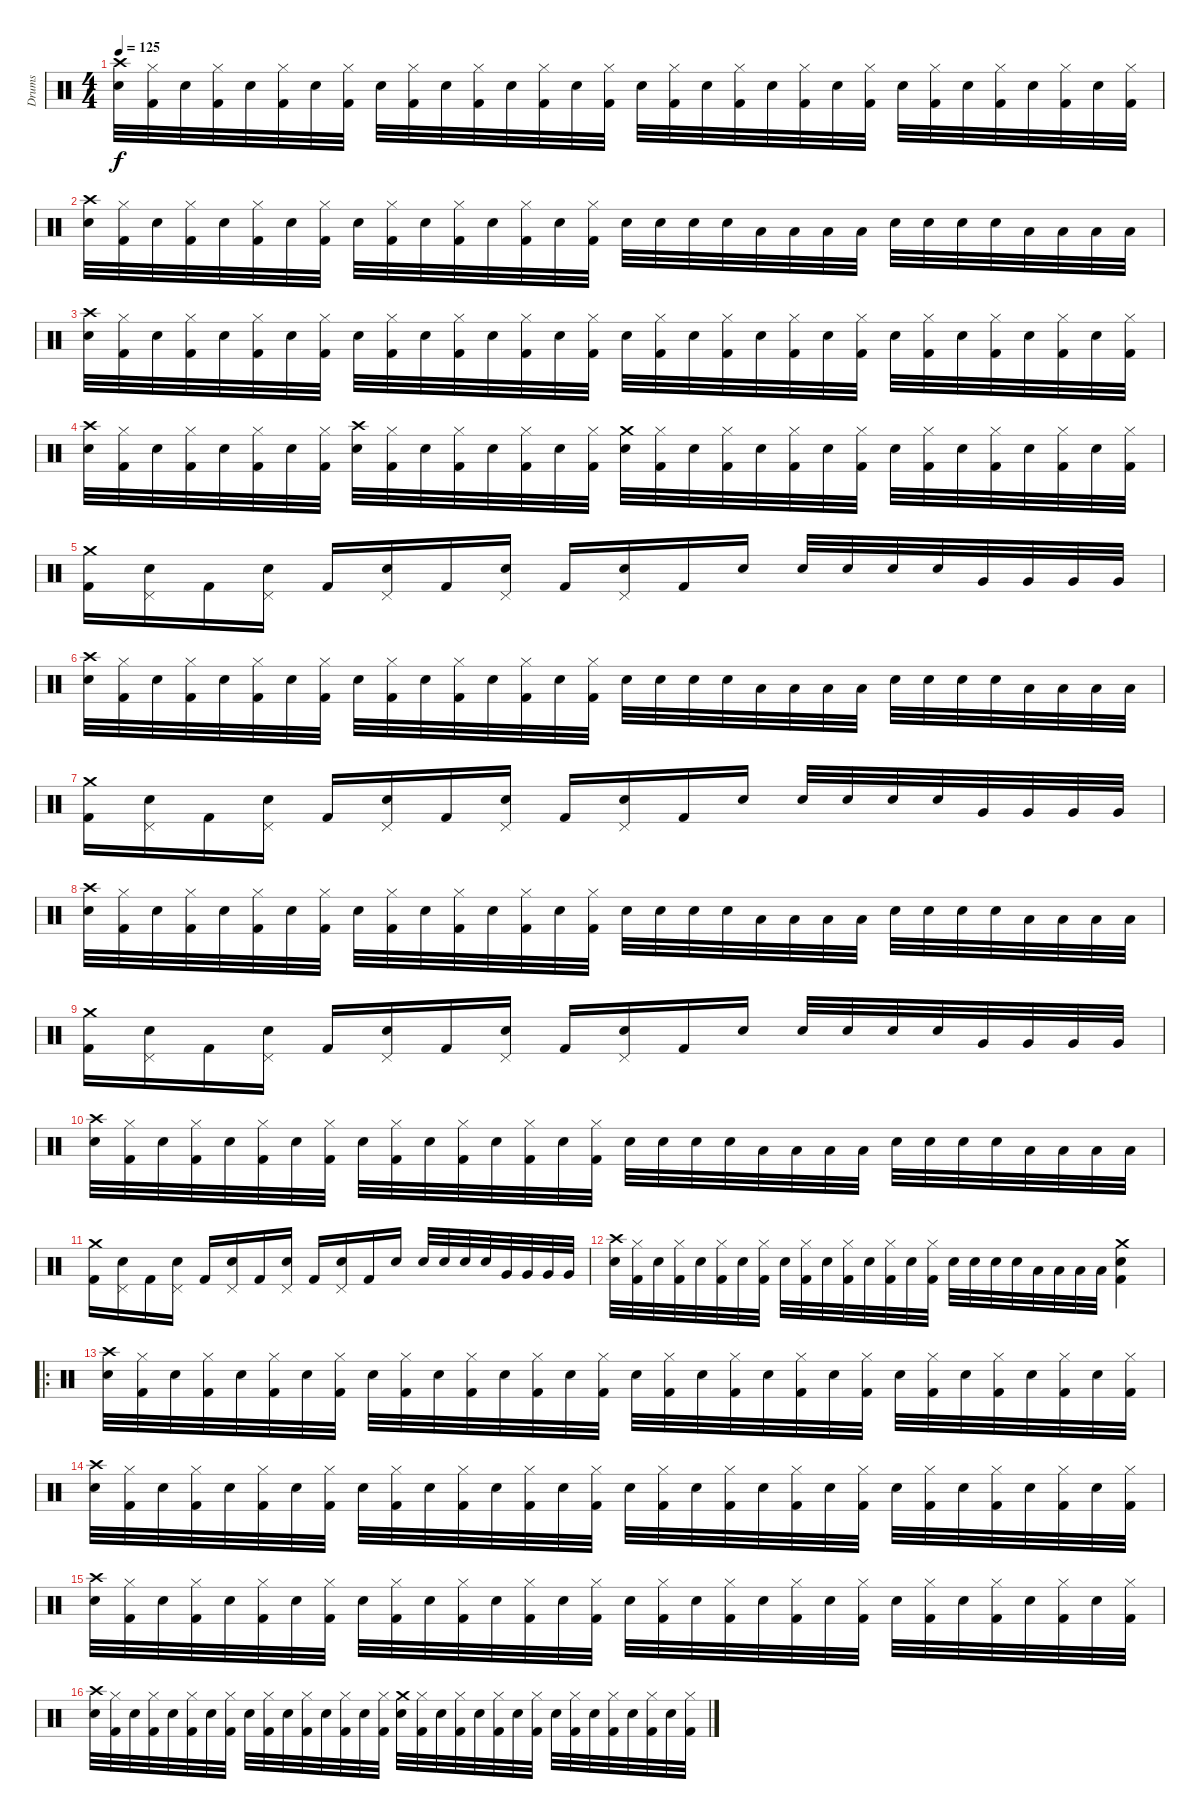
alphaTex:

\track ("Drums" "Drums") {instrument percussion}
\staff {score}
\articulation defaults
\ts (4 4)
\tempo 125
\clef neutral
\ks c
("Crash high (hit)" "Snare (hit) 2").32{dy f} ("Hi-Hat (closed)" "Kick (hit) 2").32 "Snare (hit) 2".32 ("Hi-Hat (closed)" "Kick (hit) 2").32 "Snare (hit) 2".32 ("Hi-Hat (closed)" "Kick (hit) 2").32 "Snare (hit) 2".32 ("Hi-Hat (closed)" "Kick (hit) 2").32 "Snare (hit) 2".32 ("Hi-Hat (closed)" "Kick (hit) 2").32 "Snare (hit) 2".32 ("Hi-Hat (closed)" "Kick (hit) 2").32 "Snare (hit) 2".32 ("Hi-Hat (closed)" "Kick (hit) 2").32 "Snare (hit) 2".32 ("Hi-Hat (closed)" "Kick (hit) 2").32 "Snare (hit) 2".32 ("Hi-Hat (closed)" "Kick (hit) 2").32 "Snare (hit) 2".32 ("Hi-Hat (closed)" "Kick (hit) 2").32 "Snare (hit) 2".32 ("Hi-Hat (closed)" "Kick (hit) 2").32 "Snare (hit) 2".32 ("Hi-Hat (closed)" "Kick (hit) 2").32 "Snare (hit) 2".32 ("Hi-Hat (closed)" "Kick (hit) 2").32 "Snare (hit) 2".32 ("Hi-Hat (closed)" "Kick (hit) 2").32 "Snare (hit) 2".32 ("Hi-Hat (closed)" "Kick (hit) 2").32 "Snare (hit) 2".32 ("Hi-Hat (closed)" "Kick (hit) 2").32 |
("Crash high (hit)" "Snare (hit) 2").32 ("Hi-Hat (closed)" "Kick (hit) 2").32 "Snare (hit) 2".32 ("Hi-Hat (closed)" "Kick (hit) 2").32 "Snare (hit) 2".32 ("Hi-Hat (closed)" "Kick (hit) 2").32 "Snare (hit) 2".32 ("Hi-Hat (closed)" "Kick (hit) 2").32 "Snare (hit) 2".32 ("Hi-Hat (closed)" "Kick (hit) 2").32 "Snare (hit) 2".32 ("Hi-Hat (closed)" "Kick (hit) 2").32 "Snare (hit) 2".32 ("Hi-Hat (closed)" "Kick (hit) 2").32 "Snare (hit) 2".32 ("Hi-Hat (closed)" "Kick (hit) 2").32 "Snare (hit) 2".32 "Snare (hit) 2".32 "Snare (hit) 2".32 "Snare (hit) 2".32 "Low Tom (hit)".32 "Low Tom (hit)".32 "Low Tom (hit)".32 "Low Tom (hit)".32 "Snare (hit) 2".32 "Snare (hit) 2".32 "Snare (hit) 2".32 "Snare (hit) 2".32 "Low Tom (hit)".32 "Low Tom (hit)".32 "Low Tom (hit)".32 "Low Tom (hit)".32 |
("Crash high (hit)" "Snare (hit) 2").32 ("Hi-Hat (closed)" "Kick (hit) 2").32 "Snare (hit) 2".32 ("Hi-Hat (closed)" "Kick (hit) 2").32 "Snare (hit) 2".32 ("Hi-Hat (closed)" "Kick (hit) 2").32 "Snare (hit) 2".32 ("Hi-Hat (closed)" "Kick (hit) 2").32 "Snare (hit) 2".32 ("Hi-Hat (closed)" "Kick (hit) 2").32 "Snare (hit) 2".32 ("Hi-Hat (closed)" "Kick (hit) 2").32 "Snare (hit) 2".32 ("Hi-Hat (closed)" "Kick (hit) 2").32 "Snare (hit) 2".32 ("Hi-Hat (closed)" "Kick (hit) 2").32 "Snare (hit) 2".32 ("Hi-Hat (closed)" "Kick (hit) 2").32 "Snare (hit) 2".32 ("Hi-Hat (closed)" "Kick (hit) 2").32 "Snare (hit) 2".32 ("Hi-Hat (closed)" "Kick (hit) 2").32 "Snare (hit) 2".32 ("Hi-Hat (closed)" "Kick (hit) 2").32 "Snare (hit) 2".32 ("Hi-Hat (closed)" "Kick (hit) 2").32 "Snare (hit) 2".32 ("Hi-Hat (closed)" "Kick (hit) 2").32 "Snare (hit) 2".32 ("Hi-Hat (closed)" "Kick (hit) 2").32 "Snare (hit) 2".32 ("Hi-Hat (closed)" "Kick (hit) 2").32 |
("Crash high (hit)" "Snare (hit) 2").32 ("Hi-Hat (closed)" "Kick (hit) 2").32 "Snare (hit) 2".32 ("Hi-Hat (closed)" "Kick (hit) 2").32 "Snare (hit) 2".32 ("Hi-Hat (closed)" "Kick (hit) 2").32 "Snare (hit) 2".32 ("Hi-Hat (closed)" "Kick (hit) 2").32 ("Crash high (hit)" "Snare (hit) 2").32 ("Hi-Hat (closed)" "Kick (hit) 2").32 "Snare (hit) 2".32 ("Hi-Hat (closed)" "Kick (hit) 2").32 "Snare (hit) 2".32 ("Hi-Hat (closed)" "Kick (hit) 2").32 "Snare (hit) 2".32 ("Hi-Hat (closed)" "Kick (hit) 2").32 ("Crash medium (hit)" "Snare (hit) 2").32 ("Hi-Hat (closed)" "Kick (hit) 2").32 "Snare (hit) 2".32 ("Hi-Hat (closed)" "Kick (hit) 2").32 "Snare (hit) 2".32 ("Hi-Hat (closed)" "Kick (hit) 2").32 "Snare (hit) 2".32 ("Hi-Hat (closed)" "Kick (hit) 2").32 "Snare (hit) 2".32 ("Hi-Hat (closed)" "Kick (hit) 2").32 "Snare (hit) 2".32 ("Hi-Hat (closed)" "Kick (hit) 2").32 "Snare (hit) 2".32 ("Hi-Hat (closed)" "Kick (hit) 2").32 "Snare (hit) 2".32 ("Hi-Hat (closed)" "Kick (hit) 2").32 |
("Crash medium (hit)" "Kick (hit) 2").16 ("Pedal Hi-Hat (hit)" "Snare (hit) 2").16 "Kick (hit) 2".16 ("Pedal Hi-Hat (hit)" "Snare (hit) 2").16 "Kick (hit) 2".16 ("Pedal Hi-Hat (hit)" "Snare (hit) 2").16 "Kick (hit) 2".16 ("Pedal Hi-Hat (hit)" "Snare (hit) 2").16 "Kick (hit) 2".16 ("Pedal Hi-Hat (hit)" "Snare (hit) 2").16 "Kick (hit) 2".16 "Snare (hit) 2".16 "Snare (hit) 2".32 "Snare (hit) 2".32 "Snare (hit) 2".32 "Snare (hit) 2".32 "Very Low Tom (hit)".32 "Very Low Tom (hit)".32 "Very Low Tom (hit)".32 "Very Low Tom (hit)".32 |
("Crash high (hit)" "Snare (hit) 2").32 ("Hi-Hat (closed)" "Kick (hit) 2").32 "Snare (hit) 2".32 ("Hi-Hat (closed)" "Kick (hit) 2").32 "Snare (hit) 2".32 ("Hi-Hat (closed)" "Kick (hit) 2").32 "Snare (hit) 2".32 ("Hi-Hat (closed)" "Kick (hit) 2").32 "Snare (hit) 2".32 ("Hi-Hat (closed)" "Kick (hit) 2").32 "Snare (hit) 2".32 ("Hi-Hat (closed)" "Kick (hit) 2").32 "Snare (hit) 2".32 ("Hi-Hat (closed)" "Kick (hit) 2").32 "Snare (hit) 2".32 ("Hi-Hat (closed)" "Kick (hit) 2").32 "Snare (hit) 2".32 "Snare (hit) 2".32 "Snare (hit) 2".32 "Snare (hit) 2".32 "Low Tom (hit)".32 "Low Tom (hit)".32 "Low Tom (hit)".32 "Low Tom (hit)".32 "Snare (hit) 2".32 "Snare (hit) 2".32 "Snare (hit) 2".32 "Snare (hit) 2".32 "Low Tom (hit)".32 "Low Tom (hit)".32 "Low Tom (hit)".32 "Low Tom (hit)".32 |
("Crash medium (hit)" "Kick (hit) 2").16 ("Pedal Hi-Hat (hit)" "Snare (hit) 2").16 "Kick (hit) 2".16 ("Pedal Hi-Hat (hit)" "Snare (hit) 2").16 "Kick (hit) 2".16 ("Pedal Hi-Hat (hit)" "Snare (hit) 2").16 "Kick (hit) 2".16 ("Pedal Hi-Hat (hit)" "Snare (hit) 2").16 "Kick (hit) 2".16 ("Pedal Hi-Hat (hit)" "Snare (hit) 2").16 "Kick (hit) 2".16 "Snare (hit) 2".16 "Snare (hit) 2".32 "Snare (hit) 2".32 "Snare (hit) 2".32 "Snare (hit) 2".32 "Very Low Tom (hit)".32 "Very Low Tom (hit)".32 "Very Low Tom (hit)".32 "Very Low Tom (hit)".32 |
("Crash high (hit)" "Snare (hit) 2").32 ("Hi-Hat (closed)" "Kick (hit) 2").32 "Snare (hit) 2".32 ("Hi-Hat (closed)" "Kick (hit) 2").32 "Snare (hit) 2".32 ("Hi-Hat (closed)" "Kick (hit) 2").32 "Snare (hit) 2".32 ("Hi-Hat (closed)" "Kick (hit) 2").32 "Snare (hit) 2".32 ("Hi-Hat (closed)" "Kick (hit) 2").32 "Snare (hit) 2".32 ("Hi-Hat (closed)" "Kick (hit) 2").32 "Snare (hit) 2".32 ("Hi-Hat (closed)" "Kick (hit) 2").32 "Snare (hit) 2".32 ("Hi-Hat (closed)" "Kick (hit) 2").32 "Snare (hit) 2".32 "Snare (hit) 2".32 "Snare (hit) 2".32 "Snare (hit) 2".32 "Low Tom (hit)".32 "Low Tom (hit)".32 "Low Tom (hit)".32 "Low Tom (hit)".32 "Snare (hit) 2".32 "Snare (hit) 2".32 "Snare (hit) 2".32 "Snare (hit) 2".32 "Low Tom (hit)".32 "Low Tom (hit)".32 "Low Tom (hit)".32 "Low Tom (hit)".32 |
("Crash medium (hit)" "Kick (hit) 2").16 ("Pedal Hi-Hat (hit)" "Snare (hit) 2").16 "Kick (hit) 2".16 ("Pedal Hi-Hat (hit)" "Snare (hit) 2").16 "Kick (hit) 2".16 ("Pedal Hi-Hat (hit)" "Snare (hit) 2").16 "Kick (hit) 2".16 ("Pedal Hi-Hat (hit)" "Snare (hit) 2").16 "Kick (hit) 2".16 ("Pedal Hi-Hat (hit)" "Snare (hit) 2").16 "Kick (hit) 2".16 "Snare (hit) 2".16 "Snare (hit) 2".32 "Snare (hit) 2".32 "Snare (hit) 2".32 "Snare (hit) 2".32 "Very Low Tom (hit)".32 "Very Low Tom (hit)".32 "Very Low Tom (hit)".32 "Very Low Tom (hit)".32 |
("Crash high (hit)" "Snare (hit) 2").32 ("Hi-Hat (closed)" "Kick (hit) 2").32 "Snare (hit) 2".32 ("Hi-Hat (closed)" "Kick (hit) 2").32 "Snare (hit) 2".32 ("Hi-Hat (closed)" "Kick (hit) 2").32 "Snare (hit) 2".32 ("Hi-Hat (closed)" "Kick (hit) 2").32 "Snare (hit) 2".32 ("Hi-Hat (closed)" "Kick (hit) 2").32 "Snare (hit) 2".32 ("Hi-Hat (closed)" "Kick (hit) 2").32 "Snare (hit) 2".32 ("Hi-Hat (closed)" "Kick (hit) 2").32 "Snare (hit) 2".32 ("Hi-Hat (closed)" "Kick (hit) 2").32 "Snare (hit) 2".32 "Snare (hit) 2".32 "Snare (hit) 2".32 "Snare (hit) 2".32 "Low Tom (hit)".32 "Low Tom (hit)".32 "Low Tom (hit)".32 "Low Tom (hit)".32 "Snare (hit) 2".32 "Snare (hit) 2".32 "Snare (hit) 2".32 "Snare (hit) 2".32 "Low Tom (hit)".32 "Low Tom (hit)".32 "Low Tom (hit)".32 "Low Tom (hit)".32 |
("Crash medium (hit)" "Kick (hit) 2").16 ("Pedal Hi-Hat (hit)" "Snare (hit) 2").16 "Kick (hit) 2".16 ("Pedal Hi-Hat (hit)" "Snare (hit) 2").16 "Kick (hit) 2".16 ("Pedal Hi-Hat (hit)" "Snare (hit) 2").16 "Kick (hit) 2".16 ("Pedal Hi-Hat (hit)" "Snare (hit) 2").16 "Kick (hit) 2".16 ("Pedal Hi-Hat (hit)" "Snare (hit) 2").16 "Kick (hit) 2".16 "Snare (hit) 2".16 "Snare (hit) 2".32 "Snare (hit) 2".32 "Snare (hit) 2".32 "Snare (hit) 2".32 "Very Low Tom (hit)".32 "Very Low Tom (hit)".32 "Very Low Tom (hit)".32 "Very Low Tom (hit)".32 |
("Crash high (hit)" "Snare (hit) 2").32 ("Hi-Hat (closed)" "Kick (hit) 2").32 "Snare (hit) 2".32 ("Hi-Hat (closed)" "Kick (hit) 2").32 "Snare (hit) 2".32 ("Hi-Hat (closed)" "Kick (hit) 2").32 "Snare (hit) 2".32 ("Hi-Hat (closed)" "Kick (hit) 2").32 "Snare (hit) 2".32 ("Hi-Hat (closed)" "Kick (hit) 2").32 "Snare (hit) 2".32 ("Hi-Hat (closed)" "Kick (hit) 2").32 "Snare (hit) 2".32 ("Hi-Hat (closed)" "Kick (hit) 2").32 "Snare (hit) 2".32 ("Hi-Hat (closed)" "Kick (hit) 2").32 "Snare (hit) 2".32 "Snare (hit) 2".32 "Snare (hit) 2".32 "Snare (hit) 2".32 "Low Tom (hit)".32 "Low Tom (hit)".32 "Low Tom (hit)".32 "Low Tom (hit)".32 ("Crash medium (hit)" "Snare (hit) 2" "Kick (hit) 2").4 |
\ro
("Crash high (hit)" "Snare (hit) 2").32 ("Hi-Hat (closed)" "Kick (hit) 2").32 "Snare (hit) 2".32 ("Hi-Hat (closed)" "Kick (hit) 2").32 "Snare (hit) 2".32 ("Hi-Hat (closed)" "Kick (hit) 2").32 "Snare (hit) 2".32 ("Hi-Hat (closed)" "Kick (hit) 2").32 "Snare (hit) 2".32 ("Hi-Hat (closed)" "Kick (hit) 2").32 "Snare (hit) 2".32 ("Hi-Hat (closed)" "Kick (hit) 2").32 "Snare (hit) 2".32 ("Hi-Hat (closed)" "Kick (hit) 2").32 "Snare (hit) 2".32 ("Hi-Hat (closed)" "Kick (hit) 2").32 "Snare (hit) 2".32 ("Hi-Hat (closed)" "Kick (hit) 2").32 "Snare (hit) 2".32 ("Hi-Hat (closed)" "Kick (hit) 2").32 "Snare (hit) 2".32 ("Hi-Hat (closed)" "Kick (hit) 2").32 "Snare (hit) 2".32 ("Hi-Hat (closed)" "Kick (hit) 2").32 "Snare (hit) 2".32 ("Hi-Hat (closed)" "Kick (hit) 2").32 "Snare (hit) 2".32 ("Hi-Hat (closed)" "Kick (hit) 2").32 "Snare (hit) 2".32 ("Hi-Hat (closed)" "Kick (hit) 2").32 "Snare (hit) 2".32 ("Hi-Hat (closed)" "Kick (hit) 2").32 |
("Crash high (hit)" "Snare (hit) 2").32 ("Hi-Hat (closed)" "Kick (hit) 2").32 "Snare (hit) 2".32 ("Hi-Hat (closed)" "Kick (hit) 2").32 "Snare (hit) 2".32 ("Hi-Hat (closed)" "Kick (hit) 2").32 "Snare (hit) 2".32 ("Hi-Hat (closed)" "Kick (hit) 2").32 "Snare (hit) 2".32 ("Hi-Hat (closed)" "Kick (hit) 2").32 "Snare (hit) 2".32 ("Hi-Hat (closed)" "Kick (hit) 2").32 "Snare (hit) 2".32 ("Hi-Hat (closed)" "Kick (hit) 2").32 "Snare (hit) 2".32 ("Hi-Hat (closed)" "Kick (hit) 2").32 "Snare (hit) 2".32 ("Hi-Hat (closed)" "Kick (hit) 2").32 "Snare (hit) 2".32 ("Hi-Hat (closed)" "Kick (hit) 2").32 "Snare (hit) 2".32 ("Hi-Hat (closed)" "Kick (hit) 2").32 "Snare (hit) 2".32 ("Hi-Hat (closed)" "Kick (hit) 2").32 "Snare (hit) 2".32 ("Hi-Hat (closed)" "Kick (hit) 2").32 "Snare (hit) 2".32 ("Hi-Hat (closed)" "Kick (hit) 2").32 "Snare (hit) 2".32 ("Hi-Hat (closed)" "Kick (hit) 2").32 "Snare (hit) 2".32 ("Hi-Hat (closed)" "Kick (hit) 2").32 |
("Crash high (hit)" "Snare (hit) 2").32 ("Hi-Hat (closed)" "Kick (hit) 2").32 "Snare (hit) 2".32 ("Hi-Hat (closed)" "Kick (hit) 2").32 "Snare (hit) 2".32 ("Hi-Hat (closed)" "Kick (hit) 2").32 "Snare (hit) 2".32 ("Hi-Hat (closed)" "Kick (hit) 2").32 "Snare (hit) 2".32 ("Hi-Hat (closed)" "Kick (hit) 2").32 "Snare (hit) 2".32 ("Hi-Hat (closed)" "Kick (hit) 2").32 "Snare (hit) 2".32 ("Hi-Hat (closed)" "Kick (hit) 2").32 "Snare (hit) 2".32 ("Hi-Hat (closed)" "Kick (hit) 2").32 "Snare (hit) 2".32 ("Hi-Hat (closed)" "Kick (hit) 2").32 "Snare (hit) 2".32 ("Hi-Hat (closed)" "Kick (hit) 2").32 "Snare (hit) 2".32 ("Hi-Hat (closed)" "Kick (hit) 2").32 "Snare (hit) 2".32 ("Hi-Hat (closed)" "Kick (hit) 2").32 "Snare (hit) 2".32 ("Hi-Hat (closed)" "Kick (hit) 2").32 "Snare (hit) 2".32 ("Hi-Hat (closed)" "Kick (hit) 2").32 "Snare (hit) 2".32 ("Hi-Hat (closed)" "Kick (hit) 2").32 "Snare (hit) 2".32 ("Hi-Hat (closed)" "Kick (hit) 2").32 |
("Crash high (hit)" "Snare (hit) 2").32 ("Hi-Hat (closed)" "Kick (hit) 2").32 "Snare (hit) 2".32 ("Hi-Hat (closed)" "Kick (hit) 2").32 "Snare (hit) 2".32 ("Hi-Hat (closed)" "Kick (hit) 2").32 "Snare (hit) 2".32 ("Hi-Hat (closed)" "Kick (hit) 2").32 "Snare (hit) 2".32 ("Hi-Hat (closed)" "Kick (hit) 2").32 "Snare (hit) 2".32 ("Hi-Hat (closed)" "Kick (hit) 2").32 "Snare (hit) 2".32 ("Hi-Hat (closed)" "Kick (hit) 2").32 "Snare (hit) 2".32 ("Hi-Hat (closed)" "Kick (hit) 2").32 ("Crash medium (hit)" "Snare (hit) 2").32 ("Hi-Hat (closed)" "Kick (hit) 2").32 "Snare (hit) 2".32 ("Hi-Hat (closed)" "Kick (hit) 2").32 "Snare (hit) 2".32 ("Hi-Hat (closed)" "Kick (hit) 2").32 "Snare (hit) 2".32 ("Hi-Hat (closed)" "Kick (hit) 2").32 "Snare (hit) 2".32 ("Hi-Hat (closed)" "Kick (hit) 2").32 "Snare (hit) 2".32 ("Hi-Hat (closed)" "Kick (hit) 2").32 "Snare (hit) 2".32 ("Hi-Hat (closed)" "Kick (hit) 2").32 "Snare (hit) 2".32 ("Hi-Hat (closed)" "Kick (hit) 2").32
